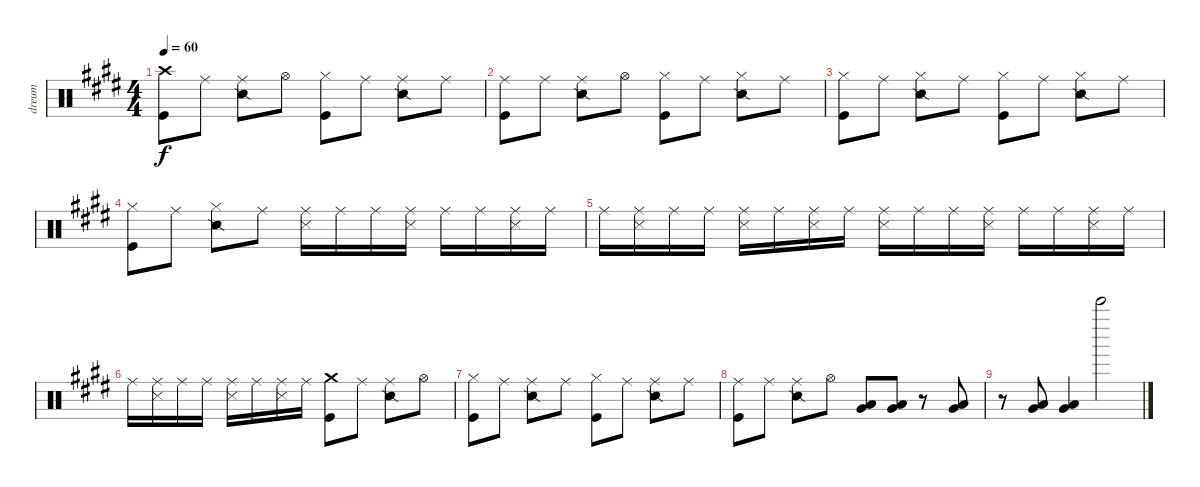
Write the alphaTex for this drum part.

\track ("dreum" "dreum") {instrument percussion}
\staff {score}
\articulation defaults
\ts (4 4)
\tempo 60
\clef neutral
\ks c#minor
("Crash high (hit)" "Kick (hit)").8{dy f} "Ride (middle)".8 ("Ride (middle)" "Snare (side stick) 2").8 "Hi-Hat (open)".8 ("Hi-Hat (closed)" "Kick (hit)").8 "Ride (middle)".8 ("Ride (middle)" "Snare (side stick) 2").8 "Ride (middle)".8 |
("Ride (middle)" "Kick (hit)").8 "Ride (middle)".8 ("Ride (middle)" "Snare (side stick) 2").8 "Hi-Hat (open)".8 ("Hi-Hat (closed)" "Kick (hit)").8 "Ride (middle)".8 ("Hi-Hat (closed)" "Snare (side stick) 2").8 "Ride (middle)".8 |
("Hi-Hat (closed)" "Kick (hit)").8 "Ride (middle)".8 ("Hi-Hat (closed)" "Snare (side stick) 2").8 "Ride (middle)".8 ("Hi-Hat (closed)" "Kick (hit)").8 "Ride (middle)".8 ("Hi-Hat (closed)" "Snare (side stick) 2").8 "Ride (middle)".8 |
("Hi-Hat (closed)" "Kick (hit)").8 "Ride (middle)".8 ("Hi-Hat (closed)" "Snare (side stick) 2").8 "Ride (middle)".8 ("Ride (middle)" "Snare (side stick) 3").16 "Ride (middle)".16 "Ride (middle)".16 ("Ride (middle)" "Snare (side stick) 3").16 "Ride (middle)".16 "Ride (middle)".16 ("Ride (middle)" "Snare (side stick) 3").16 "Ride (middle)".16 |
"Ride (middle)".16 ("Ride (middle)" "Snare (side stick) 3").16 "Ride (middle)".16 "Ride (middle)".16 ("Ride (middle)" "Snare (side stick) 3").16 "Ride (middle)".16 ("Ride (middle)" "Snare (side stick) 3").16 "Ride (middle)".16 ("Ride (middle)" "Snare (side stick) 3").16 "Ride (middle)".16 "Ride (middle)".16 ("Ride (middle)" "Snare (side stick) 3").16 "Ride (middle)".16 "Ride (middle)".16 ("Ride (middle)" "Snare (side stick) 3").16 "Ride (middle)".16 |
"Ride (middle)".16 ("Ride (middle)" "Snare (side stick) 3").16 "Ride (middle)".16 "Ride (middle)".16 ("Ride (middle)" "Snare (side stick) 3").16 "Ride (middle)".16 ("Ride (middle)" "Snare (side stick) 3").16 "Ride (middle)".16 ("Crash medium (hit)" "Kick (hit)").8 "Ride (middle)".8 ("Ride (middle)" "Snare (side stick) 2").8 "Hi-Hat (open)".8 |
("Hi-Hat (closed)" "Kick (hit)").8 "Ride (middle)".8 ("Ride (middle)" "Snare (side stick) 2").8 "Ride (middle)".8 ("Hi-Hat (closed)" "Kick (hit)").8 "Ride (middle)".8 ("Ride (middle)" "Snare (side stick) 2").8 "Ride (middle)".8 |
("Ride (middle)" "Kick (hit)").8 "Ride (middle)".8 ("Ride (middle)" "Snare (side stick) 2").8 "Hi-Hat (open)".8 ("Low Floor Tom (hit)" "Very Low Tom (hit)").8 ("Low Floor Tom (hit)" "Very Low Tom (hit)").8 r.8 ("Very Low Tom (hit)" "Low Floor Tom (hit)").8 |
r.8 ("Low Floor Tom (hit)" "Very Low Tom (hit)").8 ("Low Floor Tom (hit)" "Very Low Tom (hit)").4 "Bell Tree (hit)".2
